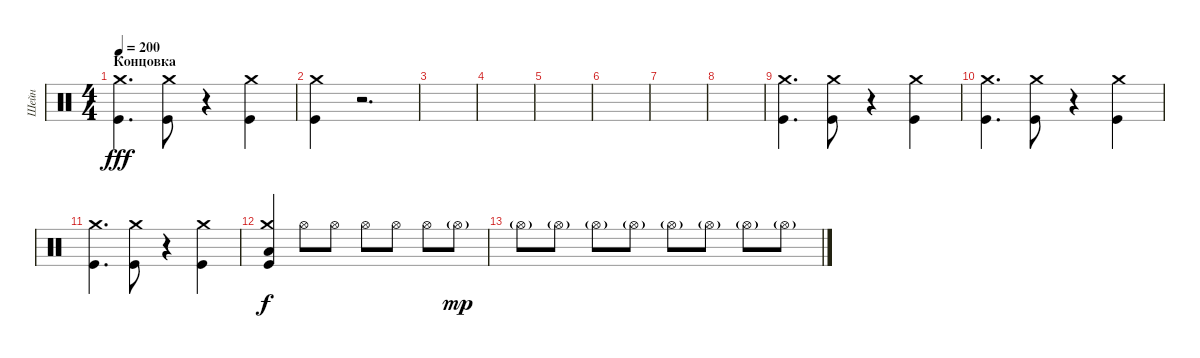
\track ("Шейн" "Шейн") {instrument percussion}
\staff {score}
\articulation defaults
\ts (4 4)
\section ("" "Концовка")
\tempo 200
\clef neutral
\ks c
("Kick (hit)" "Crash medium (hit)").4{d dy fff} ("Kick (hit)" "Crash medium (hit)").8 r.4 ("Crash medium (hit)" "Kick (hit)").4 |
("Kick (hit)" "Crash medium (hit)").4 r.2{d} |
|
|
|
|
|
|
("Kick (hit)" "Crash medium (hit)").4{d} ("Kick (hit)" "Crash medium (hit)").8 r.4 ("Crash medium (hit)" "Kick (hit)").4 |
("Kick (hit)" "Crash medium (hit)").4{d} ("Kick (hit)" "Crash medium (hit)").8 r.4 ("Crash medium (hit)" "Kick (hit)").4 |
("Kick (hit)" "Crash medium (hit)").4{d} ("Kick (hit)" "Crash medium (hit)").8 r.4 ("Crash medium (hit)" "Kick (hit)").4 |
("Kick (hit)" "Crash medium (hit)" "Low Floor Tom (hit)").4{dy f} "Hi-Hat (open)".8 "Hi-Hat (open)".8 "Hi-Hat (open)".8 "Hi-Hat (open)".8 "Hi-Hat (open)".8 "Hi-Hat (open)"{g}.8{dy mp} |
"Hi-Hat (open)"{g}.8 "Hi-Hat (open)"{g}.8 "Hi-Hat (open)"{g}.8 "Hi-Hat (open)"{g}.8 "Hi-Hat (open)"{g}.8 "Hi-Hat (open)"{g}.8 "Hi-Hat (open)"{g}.8 "Hi-Hat (open)"{g}.8
